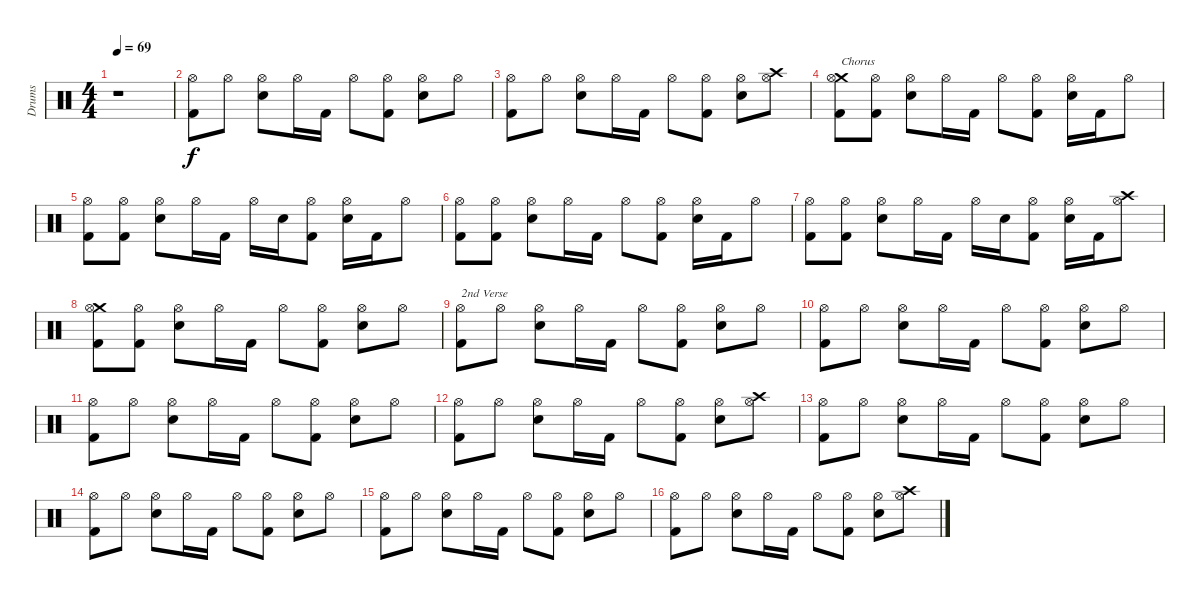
\track ("Drums" "Drums") {instrument percussion}
\staff {score}
\articulation defaults
\ts (4 4)
\tempo 69
\clef neutral
\ks c
r.1{dy f} |
("Hi-Hat (open)" "Kick (hit) 2").8 "Hi-Hat (open)".8 ("Hi-Hat (open)" "Snare (hit) 2").8 "Hi-Hat (open)".16 "Kick (hit) 2".16 "Hi-Hat (open)".8 ("Hi-Hat (open)" "Kick (hit) 2").8 ("Hi-Hat (open)" "Snare (hit) 2").8 "Hi-Hat (open)".8 |
("Hi-Hat (open)" "Kick (hit) 2").8 "Hi-Hat (open)".8 ("Hi-Hat (open)" "Snare (hit) 2").8 "Hi-Hat (open)".16 "Kick (hit) 2".16 "Hi-Hat (open)".8 ("Hi-Hat (open)" "Kick (hit) 2").8 ("Hi-Hat (open)" "Snare (hit) 2").8 ("Crash high (hit)" "Hi-Hat (open)").8 |
("Crash medium (hit)" "Hi-Hat (open)" "Kick (hit) 2").8{txt "Chorus"} ("Hi-Hat (open)" "Kick (hit) 2").8 ("Hi-Hat (open)" "Snare (hit) 2").8 "Hi-Hat (open)".16 "Kick (hit) 2".16 "Hi-Hat (open)".8 ("Hi-Hat (open)" "Kick (hit) 2").8 ("Hi-Hat (open)" "Snare (hit) 2").16 "Kick (hit) 2".16 "Hi-Hat (open)".8 |
("Hi-Hat (open)" "Kick (hit) 2").8 ("Hi-Hat (open)" "Kick (hit) 2").8 ("Hi-Hat (open)" "Snare (hit) 2").8 "Hi-Hat (open)".16 "Kick (hit) 2".16 "Hi-Hat (open)".16 "Snare (hit) 2".16 ("Hi-Hat (open)" "Kick (hit) 2").8 ("Hi-Hat (open)" "Snare (hit) 2").16 "Kick (hit) 2".16 "Hi-Hat (open)".8 |
("Hi-Hat (open)" "Kick (hit) 2").8 ("Hi-Hat (open)" "Kick (hit) 2").8 ("Hi-Hat (open)" "Snare (hit) 2").8 "Hi-Hat (open)".16 "Kick (hit) 2".16 "Hi-Hat (open)".8 ("Hi-Hat (open)" "Kick (hit) 2").8 ("Hi-Hat (open)" "Snare (hit) 2").16 "Kick (hit) 2".16 "Hi-Hat (open)".8 |
("Hi-Hat (open)" "Kick (hit) 2").8 ("Hi-Hat (open)" "Kick (hit) 2").8 ("Hi-Hat (open)" "Snare (hit) 2").8 "Hi-Hat (open)".16 "Kick (hit) 2".16 "Hi-Hat (open)".16 "Snare (hit) 2".16 ("Hi-Hat (open)" "Kick (hit) 2").8 ("Hi-Hat (open)" "Snare (hit) 2").16 "Kick (hit) 2".16 ("Crash high (hit)" "Hi-Hat (open)").8 |
("Crash medium (hit)" "Hi-Hat (open)" "Kick (hit) 2").8 ("Hi-Hat (open)" "Kick (hit) 2").8 ("Hi-Hat (open)" "Snare (hit) 2").8 "Hi-Hat (open)".16 "Kick (hit) 2".16 "Hi-Hat (open)".8 ("Hi-Hat (open)" "Kick (hit) 2").8 ("Hi-Hat (open)" "Snare (hit) 2").8 "Hi-Hat (open)".8 |
("Hi-Hat (open)" "Kick (hit) 2").8{txt "2nd Verse"} "Hi-Hat (open)".8 ("Hi-Hat (open)" "Snare (hit) 2").8 "Hi-Hat (open)".16 "Kick (hit) 2".16 "Hi-Hat (open)".8 ("Hi-Hat (open)" "Kick (hit) 2").8 ("Hi-Hat (open)" "Snare (hit) 2").8 "Hi-Hat (open)".8 |
("Hi-Hat (open)" "Kick (hit) 2").8 "Hi-Hat (open)".8 ("Hi-Hat (open)" "Snare (hit) 2").8 "Hi-Hat (open)".16 "Kick (hit) 2".16 "Hi-Hat (open)".8 ("Hi-Hat (open)" "Kick (hit) 2").8 ("Hi-Hat (open)" "Snare (hit) 2").8 "Hi-Hat (open)".8 |
("Hi-Hat (open)" "Kick (hit) 2").8 "Hi-Hat (open)".8 ("Hi-Hat (open)" "Snare (hit) 2").8 "Hi-Hat (open)".16 "Kick (hit) 2".16 "Hi-Hat (open)".8 ("Hi-Hat (open)" "Kick (hit) 2").8 ("Hi-Hat (open)" "Snare (hit) 2").8 "Hi-Hat (open)".8 |
("Hi-Hat (open)" "Kick (hit) 2").8 "Hi-Hat (open)".8 ("Hi-Hat (open)" "Snare (hit) 2").8 "Hi-Hat (open)".16 "Kick (hit) 2".16 "Hi-Hat (open)".8 ("Hi-Hat (open)" "Kick (hit) 2").8 ("Hi-Hat (open)" "Snare (hit) 2").8 ("Crash high (hit)" "Hi-Hat (open)").8 |
("Hi-Hat (open)" "Kick (hit) 2").8 "Hi-Hat (open)".8 ("Hi-Hat (open)" "Snare (hit) 2").8 "Hi-Hat (open)".16 "Kick (hit) 2".16 "Hi-Hat (open)".8 ("Hi-Hat (open)" "Kick (hit) 2").8 ("Hi-Hat (open)" "Snare (hit) 2").8 "Hi-Hat (open)".8 |
("Hi-Hat (open)" "Kick (hit) 2").8 "Hi-Hat (open)".8 ("Hi-Hat (open)" "Snare (hit) 2").8 "Hi-Hat (open)".16 "Kick (hit) 2".16 "Hi-Hat (open)".8 ("Hi-Hat (open)" "Kick (hit) 2").8 ("Hi-Hat (open)" "Snare (hit) 2").8 "Hi-Hat (open)".8 |
("Hi-Hat (open)" "Kick (hit) 2").8 "Hi-Hat (open)".8 ("Hi-Hat (open)" "Snare (hit) 2").8 "Hi-Hat (open)".16 "Kick (hit) 2".16 "Hi-Hat (open)".8 ("Hi-Hat (open)" "Kick (hit) 2").8 ("Hi-Hat (open)" "Snare (hit) 2").8 "Hi-Hat (open)".8 |
("Hi-Hat (open)" "Kick (hit) 2").8 "Hi-Hat (open)".8 ("Hi-Hat (open)" "Snare (hit) 2").8 "Hi-Hat (open)".16 "Kick (hit) 2".16 "Hi-Hat (open)".8 ("Hi-Hat (open)" "Kick (hit) 2").8 ("Hi-Hat (open)" "Snare (hit) 2").8 ("Crash high (hit)" "Hi-Hat (open)").8
